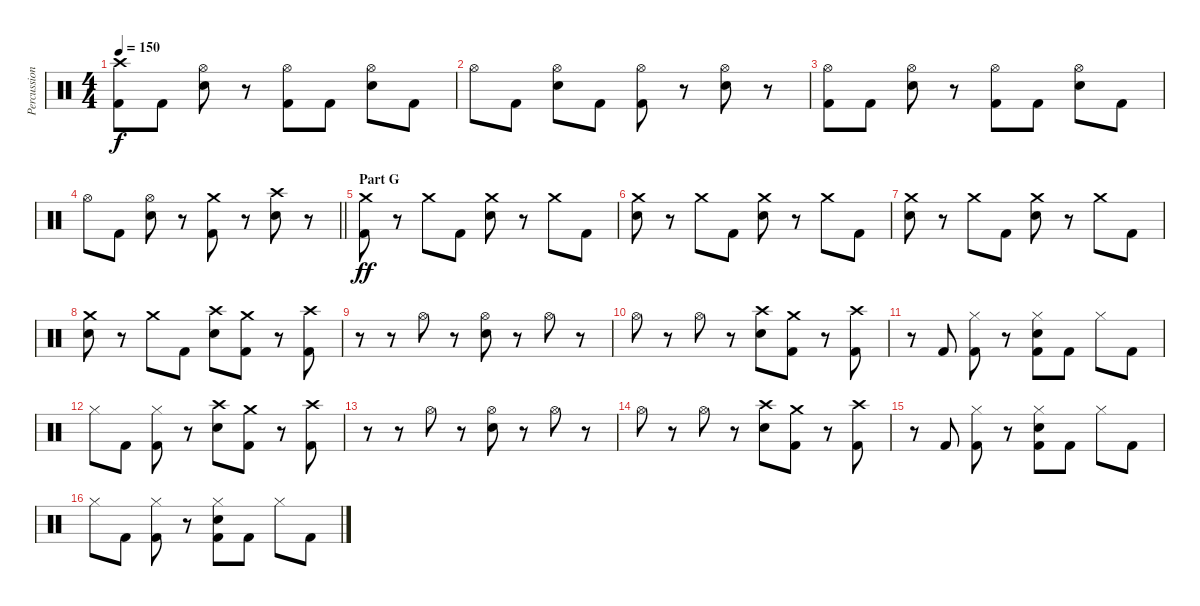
\track ("Percussion" "Percussion") {instrument percussion}
\staff {score}
\articulation defaults
\ts (4 4)
\tempo 150
\clef neutral
\ks c
("Crash high (hit)" "Kick (hit) 2").8{dy f} "Kick (hit) 2".8 ("Hi-Hat (open)" "Electric Snare (hit)").8 r.8 ("Hi-Hat (open)" "Kick (hit) 2").8 "Kick (hit) 2".8 ("Hi-Hat (open)" "Electric Snare (hit)").8 "Kick (hit) 2".8 |
"Hi-Hat (open)".8 "Kick (hit) 2".8 ("Hi-Hat (open)" "Electric Snare (hit)").8 "Kick (hit) 2".8 ("Hi-Hat (open)" "Kick (hit) 2").8 r.8 ("Hi-Hat (open)" "Electric Snare (hit)").8 r.8 |
("Hi-Hat (open)" "Kick (hit) 2").8 "Kick (hit) 2".8 ("Hi-Hat (open)" "Electric Snare (hit)").8 r.8 ("Hi-Hat (open)" "Kick (hit) 2").8 "Kick (hit) 2".8 ("Hi-Hat (open)" "Electric Snare (hit)").8 "Kick (hit) 2".8 |
\barLineRight lightlight "Hi-Hat (open)".8 "Kick (hit) 2".8
("Hi-Hat (open)" "Electric Snare (hit)").8 r.8 ("Crash medium (hit)" "Kick (hit) 2").8 r.8 ("Crash high (hit)" "Electric Snare (hit)").8 r.8 |
\section ("" "Part G")
("Crash medium (hit)" "Kick (hit) 2").8{dy ff} r.8 "Crash medium (hit)".8 "Kick (hit) 2".8 ("Crash medium (hit)" "Electric Snare (hit)").8 r.8 "Crash medium (hit)".8 "Kick (hit) 2".8 |
("Crash medium (hit)" "Electric Snare (hit)").8 r.8 "Crash medium (hit)".8 "Kick (hit) 2".8 ("Crash medium (hit)" "Electric Snare (hit)").8 r.8 "Crash medium (hit)".8 "Kick (hit) 2".8 |
("Crash medium (hit)" "Electric Snare (hit)").8 r.8 "Crash medium (hit)".8 "Kick (hit) 2".8 ("Crash medium (hit)" "Electric Snare (hit)").8 r.8 "Crash medium (hit)".8 "Kick (hit) 2".8 |
("Crash medium (hit)" "Electric Snare (hit)").8 r.8 "Crash medium (hit)".8 "Kick (hit) 2".8 ("Crash high (hit)" "Electric Snare (hit)").8 ("Crash medium (hit)" "Kick (hit) 2").8 r.8 ("Crash high (hit)" "Kick (hit) 2").8 |
r.8 r.8 "Hi-Hat (open)".8 r.8 ("Hi-Hat (open)" "Electric Snare (hit)").8 r.8 "Hi-Hat (open)".8 r.8 |
"Hi-Hat (open)".8 r.8 "Hi-Hat (open)".8 r.8 ("Crash high (hit)" "Electric Snare (hit)").8 ("Crash medium (hit)" "Kick (hit) 2").8 r.8 ("Crash high (hit)" "Kick (hit) 2").8 |
r.8 "Kick (hit) 2".8 ("Hi-Hat (closed)" "Kick (hit) 2").8 r.8 ("Hi-Hat (closed)" "Electric Snare (hit)" "Kick (hit) 2").8 "Kick (hit) 2".8 "Hi-Hat (closed)".8 "Kick (hit) 2".8 |
"Hi-Hat (closed)".8 "Kick (hit) 2".8 ("Hi-Hat (closed)" "Kick (hit) 2").8 r.8 ("Crash high (hit)" "Electric Snare (hit)").8 ("Crash medium (hit)" "Kick (hit) 2").8 r.8 ("Crash high (hit)" "Kick (hit) 2").8 |
r.8 r.8 "Hi-Hat (open)".8 r.8 ("Hi-Hat (open)" "Electric Snare (hit)").8 r.8 "Hi-Hat (open)".8 r.8 |
"Hi-Hat (open)".8 r.8 "Hi-Hat (open)".8 r.8 ("Crash high (hit)" "Electric Snare (hit)").8 ("Crash medium (hit)" "Kick (hit) 2").8 r.8 ("Crash high (hit)" "Kick (hit) 2").8 |
r.8 "Kick (hit) 2".8 ("Hi-Hat (closed)" "Kick (hit) 2").8 r.8 ("Hi-Hat (closed)" "Electric Snare (hit)" "Kick (hit) 2").8 "Kick (hit) 2".8 "Hi-Hat (closed)".8 "Kick (hit) 2".8 |
"Hi-Hat (closed)".8 "Kick (hit) 2".8 ("Hi-Hat (closed)" "Kick (hit) 2").8 r.8 ("Hi-Hat (closed)" "Electric Snare (hit)" "Kick (hit) 2").8 "Kick (hit) 2".8 "Hi-Hat (closed)".8 "Kick (hit) 2".8
